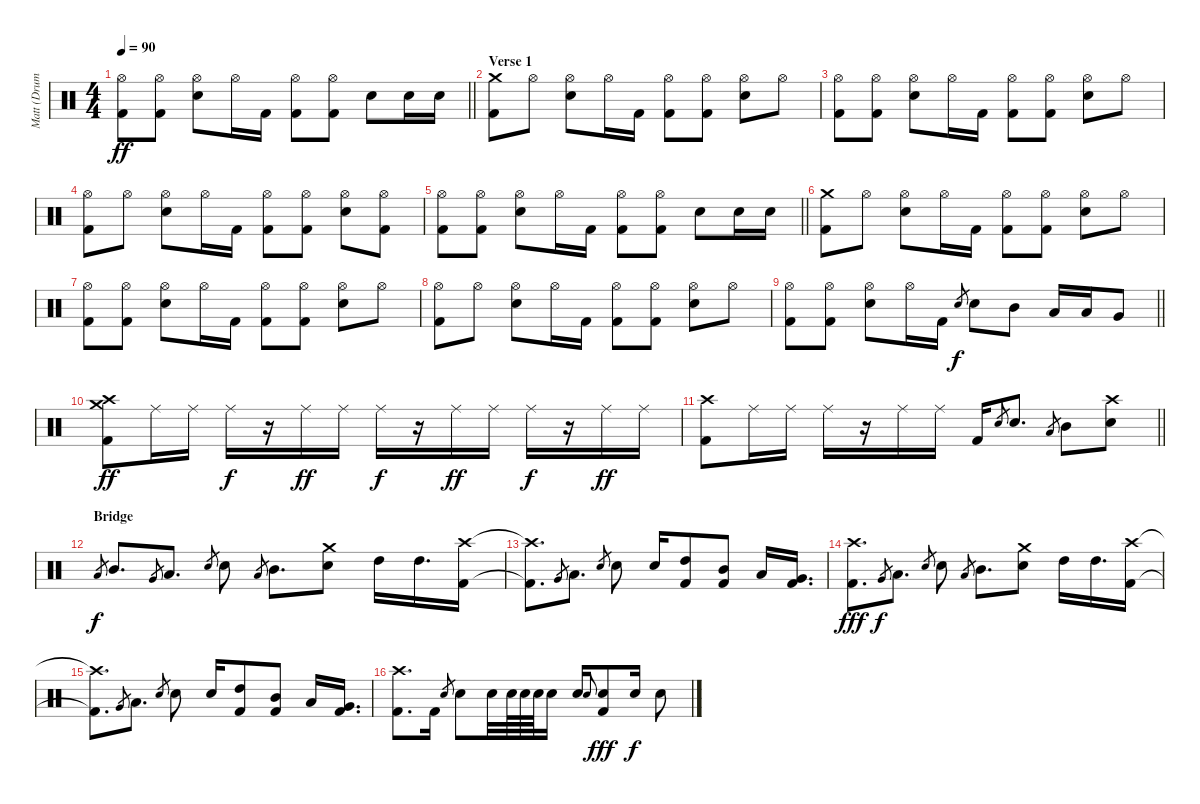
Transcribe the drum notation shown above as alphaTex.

\track ("Matt (Drums)" "Matt (Drum") {instrument percussion}
\staff {score}
\articulation defaults
\ts (4 4)
\tempo 90
\clef neutral
\barLineRight lightlight
\ks c
("Hi-Hat (open)" "Kick (hit) 2").8{dy ff} ("Hi-Hat (open)" "Kick (hit) 2").8 ("Hi-Hat (open)" "Snare (hit) 2").8 "Hi-Hat (open)".16 "Kick (hit) 2".16 ("Hi-Hat (open)" "Kick (hit) 2").8 ("Hi-Hat (open)" "Kick (hit) 2").8 "Snare (hit) 2".8 "Snare (hit) 2".16 "Snare (hit) 2".16 |
\section ("" "Verse 1")
("Crash medium (hit)" "Kick (hit) 2").8 "Hi-Hat (open)".8 ("Hi-Hat (open)" "Snare (hit) 2").8 "Hi-Hat (open)".16 "Kick (hit) 2".16 ("Hi-Hat (open)" "Kick (hit) 2").8 ("Hi-Hat (open)" "Kick (hit) 2").8 ("Hi-Hat (open)" "Snare (hit) 2").8 "Hi-Hat (open)".8 |
("Hi-Hat (open)" "Kick (hit) 2").8 ("Hi-Hat (open)" "Kick (hit) 2").8 ("Hi-Hat (open)" "Snare (hit) 2").8 "Hi-Hat (open)".16 "Kick (hit) 2".16 ("Hi-Hat (open)" "Kick (hit) 2").8 ("Hi-Hat (open)" "Kick (hit) 2").8 ("Hi-Hat (open)" "Snare (hit) 2").8 "Hi-Hat (open)".8 |
("Hi-Hat (open)" "Kick (hit) 2").8 "Hi-Hat (open)".8 ("Hi-Hat (open)" "Snare (hit) 2").8 "Hi-Hat (open)".16 "Kick (hit) 2".16 ("Hi-Hat (open)" "Kick (hit) 2").8 ("Hi-Hat (open)" "Kick (hit) 2").8 ("Hi-Hat (open)" "Snare (hit) 2").8 ("Hi-Hat (open)" "Kick (hit) 2").8 |
\barLineRight lightlight
("Hi-Hat (open)" "Kick (hit) 2").8 ("Hi-Hat (open)" "Kick (hit) 2").8 ("Hi-Hat (open)" "Snare (hit) 2").8 "Hi-Hat (open)".16 "Kick (hit) 2".16 ("Hi-Hat (open)" "Kick (hit) 2").8 ("Hi-Hat (open)" "Kick (hit) 2").8 "Snare (hit) 2".8 "Snare (hit) 2".16 "Snare (hit) 2".16 |
("Crash medium (hit)" "Kick (hit) 2").8 "Hi-Hat (open)".8 ("Hi-Hat (open)" "Snare (hit) 2").8 "Hi-Hat (open)".16 "Kick (hit) 2".16 ("Hi-Hat (open)" "Kick (hit) 2").8 ("Hi-Hat (open)" "Kick (hit) 2").8 ("Hi-Hat (open)" "Snare (hit) 2").8 "Hi-Hat (open)".8 |
("Hi-Hat (open)" "Kick (hit) 2").8 ("Hi-Hat (open)" "Kick (hit) 2").8 ("Hi-Hat (open)" "Snare (hit) 2").8 "Hi-Hat (open)".16 "Kick (hit) 2".16 ("Hi-Hat (open)" "Kick (hit) 2").8 ("Hi-Hat (open)" "Kick (hit) 2").8 ("Hi-Hat (open)" "Snare (hit) 2").8 "Hi-Hat (open)".8 |
("Hi-Hat (open)" "Kick (hit) 2").8 "Hi-Hat (open)".8 ("Hi-Hat (open)" "Snare (hit) 2").8 "Hi-Hat (open)".16 "Kick (hit) 2".16 ("Hi-Hat (open)" "Kick (hit) 2").8 ("Hi-Hat (open)" "Kick (hit) 2").8 ("Hi-Hat (open)" "Snare (hit) 2").8 "Hi-Hat (open)".8 |
\barLineRight lightlight
("Hi-Hat (open)" "Kick (hit) 2").8 ("Hi-Hat (open)" "Kick (hit) 2").8 ("Hi-Hat (open)" "Snare (hit) 2").8 "Hi-Hat (open)".16 "Kick (hit) 2".16 "Snare (hit) 2".8{gr dy f} "Snare (hit) 2".8 "Mid Tom (hit)".8 "Low Tom (hit)".16 "Low Tom (hit)".16 "Very Low Tom (hit)".8 |
("Crash medium (hit)" "Crash high (hit)" "Kick (hit) 2").8{dy ff} "Ride (middle)".16 "Ride (middle)".16 "Ride (middle)".16{dy f} r.16 "Ride (middle)".16{dy ff} "Ride (middle)".16 "Ride (middle)".16{dy f} r.16 "Ride (middle)".16{dy ff} "Ride (middle)".16 "Ride (middle)".16{dy f} r.16 "Ride (middle)".16{dy ff} "Ride (middle)".16 |
\barLineRight lightlight
("Crash high (hit)" "Kick (hit) 2").8 "Ride (middle)".16 "Ride (middle)".16 "Ride (middle)".16 r.16 "Ride (middle)".16 "Ride (middle)".16 "Kick (hit) 2".16 "Snare (hit) 2".8{gr} "Snare (hit) 2".8{d} "Low Tom (hit)".8{gr} "Mid Tom (hit)".8 ("Crash high (hit)" "Snare (hit) 2").8 |
\section ("" "Bridge")
"Low Tom (hit)".8{gr dy f} "Mid Tom (hit)".8{d} "Very Low Tom (hit)".8{gr} "Low Tom (hit)".8{d} "Snare (hit) 2".8{gr} "Snare (hit) 2".8 "Low Tom (hit)".8{gr} "Mid Tom (hit)".8{d} ("Crash medium (hit)" "Snare (hit) 2").8 "High Tom (hit)".16 "High Tom (hit)".16{d} ("Crash high (hit)" "Kick (hit) 2").16 |
("Crash high (hit)"{t} "Kick (hit) 2"{t}).8{d} "Very Low Tom (hit)".8{gr} "Low Tom (hit)".8{d} "Snare (hit) 2".8{gr} "Snare (hit) 2".8 "Snare (hit) 2".16 ("High Tom (hit)" "Kick (hit) 2").8 ("Mid Tom (hit)" "Kick (hit) 2").8 "Low Tom (hit)".16 ("Very Low Tom (hit)" "Kick (hit) 2").16{d} |
("Crash high (hit)" "Kick (hit) 2").8{d dy fff} "Very Low Tom (hit)".8{gr dy f} "Low Tom (hit)".8{d} "Snare (hit) 2".8{gr} "Snare (hit) 2".8 "Low Tom (hit)".8{gr} "Mid Tom (hit)".8{d} ("Crash medium (hit)" "Snare (hit) 2").8 "High Tom (hit)".16 "High Tom (hit)".16{d} ("Crash high (hit)" "Kick (hit) 2").16 |
("Crash high (hit)"{t} "Kick (hit) 2"{t}).8{d} "Very Low Tom (hit)".8{gr} "Low Tom (hit)".8{d} "Snare (hit) 2".8{gr} "Snare (hit) 2".8 "Snare (hit) 2".16 ("High Tom (hit)" "Kick (hit) 2").8 ("Mid Tom (hit)" "Kick (hit) 2").8 "Low Tom (hit)".16 ("Very Low Tom (hit)" "Kick (hit) 2").16{d} |
("Crash high (hit)" "Kick (hit) 2").8{d} "Kick (hit) 2".16 "Snare (hit) 2".8{gr} "Snare (hit) 2".8 "Snare (hit) 2".32 "Snare (hit) 2".64 "Snare (hit) 2".64 "Snare (hit) 2".64 "Snare (hit) 2".16 "Snare (hit) 2".16 "Snare (hit) 2".8{gr onbeat} ("Snare (hit) 2" "Kick (hit) 2").8{dy fff} "Snare (hit) 2".16{dy f} "Snare (hit) 2".8
